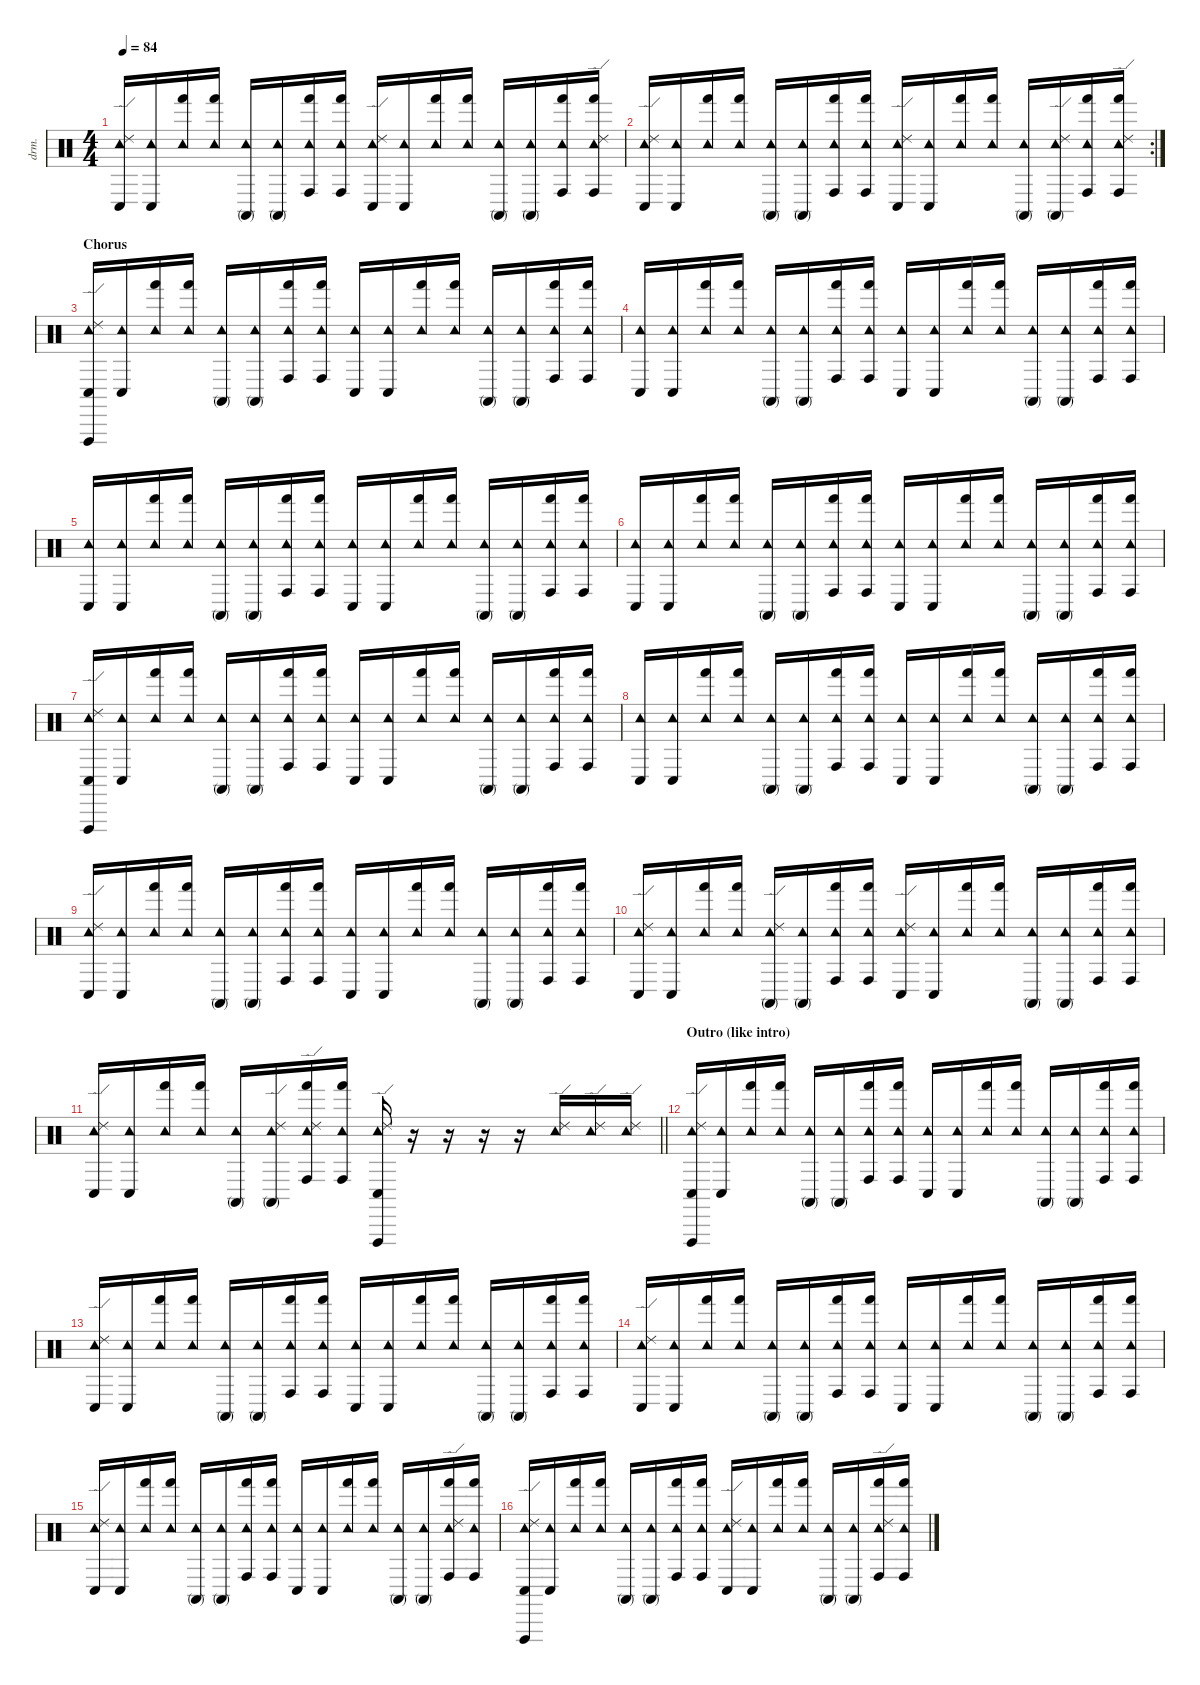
\defaultSystemsLayout 4
\hideDynamics
\bracketExtendMode nobrackets
\otherSystemsTrackNameOrientation horizontal
\track ("Conga + Tambourine" "drm.") {instrument percussion}
\staff {score}
\articulation defaults
\ts (4 4)
\tempo 84
\clef neutral
\ks c
("Conga low (hit)" "Tambourine (hit)" "Ride (edge) 2").16{dy f beam Up} ("Conga low (hit)" "Tambourine (hit)").16{beam Up} ("Hand (hit)" "Tambourine (hit)").16{beam Up} ("Hand (hit)" "Tambourine (hit)").16{beam Up} ("Conga high (mute)" "Tambourine (hit)").16{beam Up} ("Conga high (mute)" "Tambourine (hit)").16{beam Up} ("Conga high (hit)" "Hand (hit)" "Tambourine (hit)").16{beam Up} ("Conga high (hit)" "Hand (hit)" "Tambourine (hit)").16{beam Up} ("Conga low (hit)" "Tambourine (hit)" "Ride (edge) 2").16{beam Up} ("Conga low (hit)" "Tambourine (hit)").16{beam Up} ("Hand (hit)" "Tambourine (hit)").16{beam Up} ("Hand (hit)" "Tambourine (hit)").16{beam Up} ("Conga high (mute)" "Tambourine (hit)").16{beam Up} ("Conga high (mute)" "Tambourine (hit)").16{beam Up} ("Conga high (hit)" "Hand (hit)" "Tambourine (hit)").16{beam Up} ("Conga high (hit)" "Hand (hit)" "Tambourine (hit)" "Ride (edge) 2").16{beam Up} |
\rc 2
("Conga low (hit)" "Tambourine (hit)" "Ride (edge) 2").16{beam Up} ("Conga low (hit)" "Tambourine (hit)").16{beam Up} ("Hand (hit)" "Tambourine (hit)").16{beam Up} ("Hand (hit)" "Tambourine (hit)").16{beam Up} ("Conga high (mute)" "Tambourine (hit)").16{beam Up} ("Conga high (mute)" "Tambourine (hit)").16{beam Up} ("Conga high (hit)" "Hand (hit)" "Tambourine (hit)").16{beam Up} ("Conga high (hit)" "Hand (hit)" "Tambourine (hit)").16{beam Up} ("Conga low (hit)" "Tambourine (hit)" "Ride (edge) 2").16{beam Up} ("Conga low (hit)" "Tambourine (hit)").16{beam Up} ("Hand (hit)" "Tambourine (hit)").16{beam Up} ("Hand (hit)" "Tambourine (hit)").16{beam Up} ("Conga high (mute)" "Tambourine (hit)").16{beam Up} ("Conga high (mute)" "Tambourine (hit)" "Ride (edge) 2").16{beam Up} ("Conga high (hit)" "Hand (hit)" "Tambourine (hit)").16{beam Up} ("Conga high (hit)" "Hand (hit)" "Tambourine (hit)" "Ride (edge) 2").16{beam Up} |
\section ("" "Chorus")
("Conga low (hit)" "Vibraslap (hit)" "Tambourine (hit)" "Ride (edge) 2").16{beam Up} ("Conga low (hit)" "Tambourine (hit)").16{beam Up} ("Hand (hit)" "Tambourine (hit)").16{beam Up} ("Hand (hit)" "Tambourine (hit)").16{beam Up} ("Conga high (mute)" "Tambourine (hit)").16{beam Up} ("Conga high (mute)" "Tambourine (hit)").16{beam Up} ("Conga high (hit)" "Hand (hit)" "Tambourine (hit)").16{beam Up} ("Conga high (hit)" "Hand (hit)" "Tambourine (hit)").16{beam Up} ("Conga low (hit)" "Tambourine (hit)").16{beam Up} ("Conga low (hit)" "Tambourine (hit)").16{beam Up} ("Hand (hit)" "Tambourine (hit)").16{beam Up} ("Hand (hit)" "Tambourine (hit)").16{beam Up} ("Conga high (mute)" "Tambourine (hit)").16{beam Up} ("Conga high (mute)" "Tambourine (hit)").16{beam Up} ("Conga high (hit)" "Hand (hit)" "Tambourine (hit)").16{beam Up} ("Conga high (hit)" "Hand (hit)" "Tambourine (hit)").16{beam Up} |
("Conga low (hit)" "Tambourine (hit)").16{beam Up} ("Conga low (hit)" "Tambourine (hit)").16{beam Up} ("Hand (hit)" "Tambourine (hit)").16{beam Up} ("Hand (hit)" "Tambourine (hit)").16{beam Up} ("Conga high (mute)" "Tambourine (hit)").16{beam Up} ("Conga high (mute)" "Tambourine (hit)").16{beam Up} ("Conga high (hit)" "Hand (hit)" "Tambourine (hit)").16{beam Up} ("Conga high (hit)" "Hand (hit)" "Tambourine (hit)").16{beam Up} ("Conga low (hit)" "Tambourine (hit)").16{beam Up} ("Conga low (hit)" "Tambourine (hit)").16{beam Up} ("Hand (hit)" "Tambourine (hit)").16{beam Up} ("Hand (hit)" "Tambourine (hit)").16{beam Up} ("Conga high (mute)" "Tambourine (hit)").16{beam Up} ("Conga high (mute)" "Tambourine (hit)").16{beam Up} ("Conga high (hit)" "Hand (hit)" "Tambourine (hit)").16{beam Up} ("Conga high (hit)" "Hand (hit)" "Tambourine (hit)").16{beam Up} |
("Conga low (hit)" "Tambourine (hit)").16{beam Up} ("Conga low (hit)" "Tambourine (hit)").16{beam Up} ("Hand (hit)" "Tambourine (hit)").16{beam Up} ("Hand (hit)" "Tambourine (hit)").16{beam Up} ("Conga high (mute)" "Tambourine (hit)").16{beam Up} ("Conga high (mute)" "Tambourine (hit)").16{beam Up} ("Conga high (hit)" "Hand (hit)" "Tambourine (hit)").16{beam Up} ("Conga high (hit)" "Hand (hit)" "Tambourine (hit)").16{beam Up} ("Conga low (hit)" "Tambourine (hit)").16{beam Up} ("Conga low (hit)" "Tambourine (hit)").16{beam Up} ("Hand (hit)" "Tambourine (hit)").16{beam Up} ("Hand (hit)" "Tambourine (hit)").16{beam Up} ("Conga high (mute)" "Tambourine (hit)").16{beam Up} ("Conga high (mute)" "Tambourine (hit)").16{beam Up} ("Conga high (hit)" "Hand (hit)" "Tambourine (hit)").16{beam Up} ("Conga high (hit)" "Hand (hit)" "Tambourine (hit)").16{beam Up} |
("Conga low (hit)" "Tambourine (hit)").16{beam Up} ("Conga low (hit)" "Tambourine (hit)").16{beam Up} ("Hand (hit)" "Tambourine (hit)").16{beam Up} ("Hand (hit)" "Tambourine (hit)").16{beam Up} ("Conga high (mute)" "Tambourine (hit)").16{beam Up} ("Conga high (mute)" "Tambourine (hit)").16{beam Up} ("Conga high (hit)" "Hand (hit)" "Tambourine (hit)").16{beam Up} ("Conga high (hit)" "Hand (hit)" "Tambourine (hit)").16{beam Up} ("Conga low (hit)" "Tambourine (hit)").16{beam Up} ("Conga low (hit)" "Tambourine (hit)").16{beam Up} ("Hand (hit)" "Tambourine (hit)").16{beam Up} ("Hand (hit)" "Tambourine (hit)").16{beam Up} ("Conga high (mute)" "Tambourine (hit)").16{beam Up} ("Conga high (mute)" "Tambourine (hit)").16{beam Up} ("Conga high (hit)" "Hand (hit)" "Tambourine (hit)").16{beam Up} ("Conga high (hit)" "Hand (hit)" "Tambourine (hit)").16{beam Up} |
("Conga low (hit)" "Vibraslap (hit)" "Tambourine (hit)" "Ride (edge) 2").16{beam Up} ("Conga low (hit)" "Tambourine (hit)").16{beam Up} ("Hand (hit)" "Tambourine (hit)").16{beam Up} ("Hand (hit)" "Tambourine (hit)").16{beam Up} ("Conga high (mute)" "Tambourine (hit)").16{beam Up} ("Conga high (mute)" "Tambourine (hit)").16{beam Up} ("Conga high (hit)" "Hand (hit)" "Tambourine (hit)").16{beam Up} ("Conga high (hit)" "Hand (hit)" "Tambourine (hit)").16{beam Up} ("Conga low (hit)" "Tambourine (hit)").16{beam Up} ("Conga low (hit)" "Tambourine (hit)").16{beam Up} ("Hand (hit)" "Tambourine (hit)").16{beam Up} ("Hand (hit)" "Tambourine (hit)").16{beam Up} ("Conga high (mute)" "Tambourine (hit)").16{beam Up} ("Conga high (mute)" "Tambourine (hit)").16{beam Up} ("Conga high (hit)" "Hand (hit)" "Tambourine (hit)").16{beam Up} ("Conga high (hit)" "Hand (hit)" "Tambourine (hit)").16{beam Up} |
("Conga low (hit)" "Tambourine (hit)").16{beam Up} ("Conga low (hit)" "Tambourine (hit)").16{beam Up} ("Hand (hit)" "Tambourine (hit)").16{beam Up} ("Hand (hit)" "Tambourine (hit)").16{beam Up} ("Conga high (mute)" "Tambourine (hit)").16{beam Up} ("Conga high (mute)" "Tambourine (hit)").16{beam Up} ("Conga high (hit)" "Hand (hit)" "Tambourine (hit)").16{beam Up} ("Conga high (hit)" "Hand (hit)" "Tambourine (hit)").16{beam Up} ("Conga low (hit)" "Tambourine (hit)").16{beam Up} ("Conga low (hit)" "Tambourine (hit)").16{beam Up} ("Hand (hit)" "Tambourine (hit)").16{beam Up} ("Hand (hit)" "Tambourine (hit)").16{beam Up} ("Conga high (mute)" "Tambourine (hit)").16{beam Up} ("Conga high (mute)" "Tambourine (hit)").16{beam Up} ("Conga high (hit)" "Hand (hit)" "Tambourine (hit)").16{beam Up} ("Conga high (hit)" "Hand (hit)" "Tambourine (hit)").16{beam Up} |
("Conga low (hit)" "Tambourine (hit)" "Ride (edge) 2").16{beam Up} ("Conga low (hit)" "Tambourine (hit)").16{beam Up} ("Hand (hit)" "Tambourine (hit)").16{beam Up} ("Hand (hit)" "Tambourine (hit)").16{beam Up} ("Conga high (mute)" "Tambourine (hit)").16{beam Up} ("Conga high (mute)" "Tambourine (hit)").16{beam Up} ("Conga high (hit)" "Hand (hit)" "Tambourine (hit)").16{beam Up} ("Conga high (hit)" "Hand (hit)" "Tambourine (hit)").16{beam Up} ("Conga low (hit)" "Tambourine (hit)").16{beam Up} ("Conga low (hit)" "Tambourine (hit)").16{beam Up} ("Hand (hit)" "Tambourine (hit)").16{beam Up} ("Hand (hit)" "Tambourine (hit)").16{beam Up} ("Conga high (mute)" "Tambourine (hit)").16{beam Up} ("Conga high (mute)" "Tambourine (hit)").16{beam Up} ("Conga high (hit)" "Hand (hit)" "Tambourine (hit)").16{beam Up} ("Conga high (hit)" "Hand (hit)" "Tambourine (hit)").16{beam Up} |
("Conga low (hit)" "Tambourine (hit)" "Ride (edge) 2").16{beam Up} ("Conga low (hit)" "Tambourine (hit)").16{beam Up} ("Hand (hit)" "Tambourine (hit)").16{beam Up} ("Hand (hit)" "Tambourine (hit)").16{beam Up} ("Conga high (mute)" "Tambourine (hit)" "Ride (edge) 2").16{beam Up} ("Conga high (mute)" "Tambourine (hit)").16{beam Up} ("Conga high (hit)" "Hand (hit)" "Tambourine (hit)").16{beam Up} ("Conga high (hit)" "Hand (hit)" "Tambourine (hit)").16{beam Up} ("Conga low (hit)" "Tambourine (hit)" "Ride (edge) 2").16{beam Up} ("Conga low (hit)" "Tambourine (hit)").16{beam Up} ("Hand (hit)" "Tambourine (hit)").16{beam Up} ("Hand (hit)" "Tambourine (hit)").16{beam Up} ("Conga high (mute)" "Tambourine (hit)").16{beam Up} ("Conga high (mute)" "Tambourine (hit)").16{beam Up} ("Conga high (hit)" "Hand (hit)" "Tambourine (hit)").16{beam Up} ("Conga high (hit)" "Hand (hit)" "Tambourine (hit)").16{beam Up} |
\barLineRight lightlight
("Conga low (hit)" "Tambourine (hit)" "Ride (edge) 2").16{beam Up} ("Conga low (hit)" "Tambourine (hit)").16{beam Up} ("Hand (hit)" "Tambourine (hit)").16{beam Up} ("Hand (hit)" "Tambourine (hit)").16{beam Up} ("Conga high (mute)" "Tambourine (hit)").16{beam Up} ("Conga high (mute)" "Tambourine (hit)" "Ride (edge) 2").16{beam Up} ("Conga high (hit)" "Hand (hit)" "Tambourine (hit)" "Ride (edge) 2").16{beam Up} ("Conga high (hit)" "Hand (hit)" "Tambourine (hit)").16{beam Up} ("Conga low (hit)" "Vibraslap (hit)" "Tambourine (hit)" "Ride (edge) 2").16{beam Up} r.16{beam Up} r.16{beam Up} r.16{beam Up} r.16{beam Up} ("Tambourine (hit)" "Ride (edge) 2").16{dy mp beam Down} ("Tambourine (hit)" "Ride (edge) 2").16{dy mf beam Down} ("Tambourine (hit)" "Ride (edge) 2").16{dy f beam Down} |
\section ("" "Outro (like intro)")
("Conga low (hit)" "Vibraslap (hit)" "Tambourine (hit)" "Ride (edge) 2").16{beam Up} ("Conga low (hit)" "Tambourine (hit)").16{beam Up} ("Hand (hit)" "Tambourine (hit)").16{beam Up} ("Hand (hit)" "Tambourine (hit)").16{beam Up} ("Conga high (mute)" "Tambourine (hit)").16{beam Up} ("Conga high (mute)" "Tambourine (hit)").16{beam Up} ("Conga high (hit)" "Hand (hit)" "Tambourine (hit)").16{beam Up} ("Conga high (hit)" "Hand (hit)" "Tambourine (hit)").16{beam Up} ("Conga low (hit)" "Tambourine (hit)").16{beam Up} ("Conga low (hit)" "Tambourine (hit)").16{beam Up} ("Hand (hit)" "Tambourine (hit)").16{beam Up} ("Hand (hit)" "Tambourine (hit)").16{beam Up} ("Conga high (mute)" "Tambourine (hit)").16{beam Up} ("Conga high (mute)" "Tambourine (hit)").16{beam Up} ("Conga high (hit)" "Hand (hit)" "Tambourine (hit)").16{beam Up} ("Conga high (hit)" "Hand (hit)" "Tambourine (hit)").16{beam Up} |
("Conga low (hit)" "Tambourine (hit)" "Ride (edge) 2").16{beam Up} ("Conga low (hit)" "Tambourine (hit)").16{beam Up} ("Hand (hit)" "Tambourine (hit)").16{beam Up} ("Hand (hit)" "Tambourine (hit)").16{beam Up} ("Conga high (mute)" "Tambourine (hit)").16{beam Up} ("Conga high (mute)" "Tambourine (hit)").16{beam Up} ("Conga high (hit)" "Hand (hit)" "Tambourine (hit)").16{beam Up} ("Conga high (hit)" "Hand (hit)" "Tambourine (hit)").16{beam Up} ("Conga low (hit)" "Tambourine (hit)").16{beam Up} ("Conga low (hit)" "Tambourine (hit)").16{beam Up} ("Hand (hit)" "Tambourine (hit)").16{beam Up} ("Hand (hit)" "Tambourine (hit)").16{beam Up} ("Conga high (mute)" "Tambourine (hit)").16{beam Up} ("Conga high (mute)" "Tambourine (hit)").16{beam Up} ("Conga high (hit)" "Hand (hit)" "Tambourine (hit)").16{beam Up} ("Conga high (hit)" "Hand (hit)" "Tambourine (hit)").16{beam Up} |
("Conga low (hit)" "Tambourine (hit)" "Ride (edge) 2").16{beam Up} ("Conga low (hit)" "Tambourine (hit)").16{beam Up} ("Hand (hit)" "Tambourine (hit)").16{beam Up} ("Hand (hit)" "Tambourine (hit)").16{beam Up} ("Conga high (mute)" "Tambourine (hit)").16{beam Up} ("Conga high (mute)" "Tambourine (hit)").16{beam Up} ("Conga high (hit)" "Hand (hit)" "Tambourine (hit)").16{beam Up} ("Conga high (hit)" "Hand (hit)" "Tambourine (hit)").16{beam Up} ("Conga low (hit)" "Tambourine (hit)").16{beam Up} ("Conga low (hit)" "Tambourine (hit)").16{beam Up} ("Hand (hit)" "Tambourine (hit)").16{beam Up} ("Hand (hit)" "Tambourine (hit)").16{beam Up} ("Conga high (mute)" "Tambourine (hit)").16{beam Up} ("Conga high (mute)" "Tambourine (hit)").16{beam Up} ("Conga high (hit)" "Hand (hit)" "Tambourine (hit)").16{beam Up} ("Conga high (hit)" "Hand (hit)" "Tambourine (hit)").16{beam Up} |
("Conga low (hit)" "Tambourine (hit)" "Ride (edge) 2").16{beam Up} ("Conga low (hit)" "Tambourine (hit)").16{beam Up} ("Hand (hit)" "Tambourine (hit)").16{beam Up} ("Hand (hit)" "Tambourine (hit)").16{beam Up} ("Conga high (mute)" "Tambourine (hit)").16{beam Up} ("Conga high (mute)" "Tambourine (hit)").16{beam Up} ("Conga high (hit)" "Hand (hit)" "Tambourine (hit)").16{beam Up} ("Conga high (hit)" "Hand (hit)" "Tambourine (hit)").16{beam Up} ("Conga low (hit)" "Tambourine (hit)").16{beam Up} ("Conga low (hit)" "Tambourine (hit)").16{beam Up} ("Hand (hit)" "Tambourine (hit)").16{beam Up} ("Hand (hit)" "Tambourine (hit)").16{beam Up} ("Conga high (mute)" "Tambourine (hit)").16{beam Up} ("Conga high (mute)" "Tambourine (hit)").16{beam Up} ("Conga high (hit)" "Hand (hit)" "Tambourine (hit)" "Ride (edge) 2").16{beam Up} ("Conga high (hit)" "Hand (hit)" "Tambourine (hit)").16{beam Up} |
("Conga low (hit)" "Vibraslap (hit)" "Tambourine (hit)" "Ride (edge) 2").16{beam Up} ("Conga low (hit)" "Tambourine (hit)").16{beam Up} ("Hand (hit)" "Tambourine (hit)").16{beam Up} ("Hand (hit)" "Tambourine (hit)").16{beam Up} ("Conga high (mute)" "Tambourine (hit)").16{beam Up} ("Conga high (mute)" "Tambourine (hit)").16{beam Up} ("Conga high (hit)" "Hand (hit)" "Tambourine (hit)").16{beam Up} ("Conga high (hit)" "Hand (hit)" "Tambourine (hit)").16{beam Up} ("Conga low (hit)" "Tambourine (hit)" "Ride (edge) 2").16{beam Up} ("Conga low (hit)" "Tambourine (hit)").16{beam Up} ("Hand (hit)" "Tambourine (hit)").16{beam Up} ("Hand (hit)" "Tambourine (hit)").16{beam Up} ("Conga high (mute)" "Tambourine (hit)").16{beam Up} ("Conga high (mute)" "Tambourine (hit)").16{beam Up} ("Conga high (hit)" "Hand (hit)" "Tambourine (hit)" "Ride (edge) 2").16{beam Up} ("Conga high (hit)" "Hand (hit)" "Tambourine (hit)").16{beam Up}
